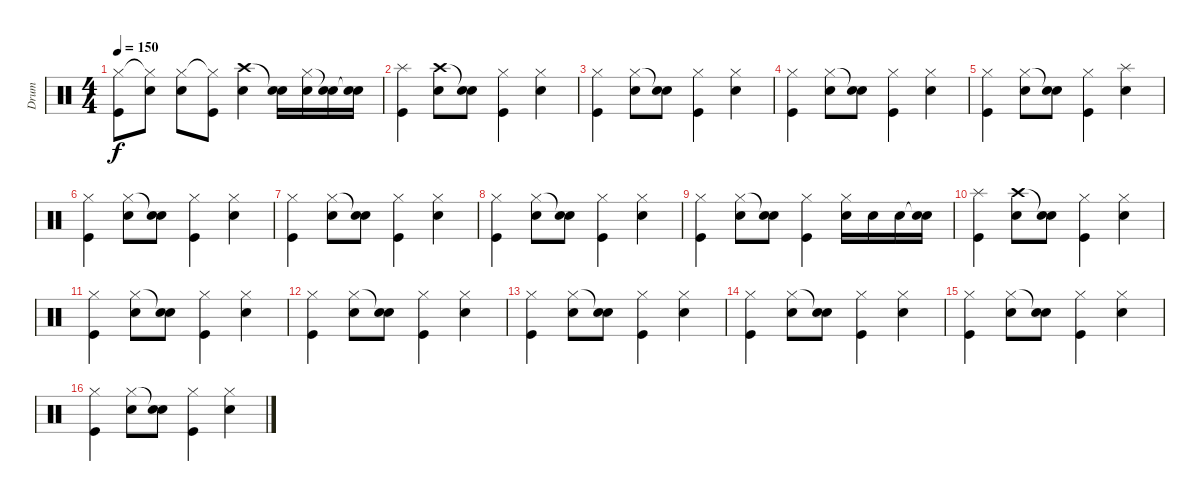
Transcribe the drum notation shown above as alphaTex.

\track ("Drum" "Drum") {instrument percussion}
\staff {score}
\articulation defaults
\ts (4 4)
\tempo 150
\clef neutral
\ks c
("Hi-Hat (closed)" "Kick (hit)").8{dy f} ("Hi-Hat (closed)"{t} "Snare (hit) 2").8 ("Hi-Hat (closed)" "Snare (hit) 2").8 ("Hi-Hat (closed)"{t} "Kick (hit)").8 ("Crash high (hit)" "Snare (hit) 2").4 ("Snare (hit)"{t} "Snare (hit) 2").16 ("Hi-Hat (closed)" "Snare (hit) 2").16 ("Snare (hit)"{t} "Snare (hit) 2").16 ("Snare (hit)"{t} "Snare (hit) 2").16 |
("Splash (hit)" "Kick (hit)").4 ("Crash high (hit)" "Snare (hit) 2").8 ("Snare (hit)"{t} "Snare (hit) 2").8 ("Hi-Hat (closed)" "Kick (hit)").4 ("Hi-Hat (closed)" "Snare (hit) 2").4 |
("Hi-Hat (closed)" "Kick (hit)").4 ("Hi-Hat (closed)" "Snare (hit) 2").8 ("Snare (hit)"{t} "Snare (hit) 2").8 ("Hi-Hat (closed)" "Kick (hit)").4 ("Hi-Hat (closed)" "Snare (hit) 2").4 |
("Hi-Hat (closed)" "Kick (hit)").4 ("Hi-Hat (closed)" "Snare (hit) 2").8 ("Snare (hit)"{t} "Snare (hit) 2").8 ("Hi-Hat (closed)" "Kick (hit)").4 ("Hi-Hat (closed)" "Snare (hit) 2").4 |
("Hi-Hat (closed)" "Kick (hit)").4 ("Hi-Hat (closed)" "Snare (hit) 2").8 ("Snare (hit)"{t} "Snare (hit) 2").8 ("Hi-Hat (closed)" "Kick (hit)").4 ("Splash (hit)" "Snare (hit) 2").4 |
("Hi-Hat (closed)" "Kick (hit)").4 ("Hi-Hat (closed)" "Snare (hit) 2").8 ("Snare (hit)"{t} "Snare (hit) 2").8 ("Hi-Hat (closed)" "Kick (hit)").4 ("Hi-Hat (closed)" "Snare (hit) 2").4 |
("Hi-Hat (closed)" "Kick (hit)").4 ("Hi-Hat (closed)" "Snare (hit) 2").8 ("Snare (hit)"{t} "Snare (hit) 2").8 ("Hi-Hat (closed)" "Kick (hit)").4 ("Hi-Hat (closed)" "Snare (hit) 2").4 |
("Hi-Hat (closed)" "Kick (hit)").4 ("Hi-Hat (closed)" "Snare (hit) 2").8 ("Snare (hit)"{t} "Snare (hit) 2").8 ("Hi-Hat (closed)" "Kick (hit)").4 ("Hi-Hat (closed)" "Snare (hit) 2").4 |
("Hi-Hat (closed)" "Kick (hit)").4 ("Hi-Hat (closed)" "Snare (hit) 2").8 ("Snare (hit)"{t} "Snare (hit) 2").8 ("Hi-Hat (closed)" "Kick (hit)").4 ("Hi-Hat (closed)" "Snare (hit) 2").16 "Snare (hit) 2".16 "Snare (hit) 2".16 ("Snare (hit)"{t} "Snare (hit) 2").16 |
("Splash (hit)" "Kick (hit)").4 ("Crash high (hit)" "Snare (hit) 2").8 ("Snare (hit)"{t} "Snare (hit) 2").8 ("Hi-Hat (closed)" "Kick (hit)").4 ("Hi-Hat (closed)" "Snare (hit) 2").4 |
("Hi-Hat (closed)" "Kick (hit)").4 ("Hi-Hat (closed)" "Snare (hit) 2").8 ("Snare (hit)"{t} "Snare (hit) 2").8 ("Hi-Hat (closed)" "Kick (hit)").4 ("Hi-Hat (closed)" "Snare (hit) 2").4 |
("Hi-Hat (closed)" "Kick (hit)").4 ("Hi-Hat (closed)" "Snare (hit) 2").8 ("Snare (hit)"{t} "Snare (hit) 2").8 ("Hi-Hat (closed)" "Kick (hit)").4 ("Hi-Hat (closed)" "Snare (hit) 2").4 |
("Hi-Hat (closed)" "Kick (hit)").4 ("Hi-Hat (closed)" "Snare (hit) 2").8 ("Snare (hit)"{t} "Snare (hit) 2").8 ("Hi-Hat (closed)" "Kick (hit)").4 ("Hi-Hat (closed)" "Snare (hit) 2").4 |
("Hi-Hat (closed)" "Kick (hit)").4 ("Hi-Hat (closed)" "Snare (hit) 2").8 ("Snare (hit)"{t} "Snare (hit) 2").8 ("Hi-Hat (closed)" "Kick (hit)").4 ("Hi-Hat (closed)" "Snare (hit) 2").4 |
("Hi-Hat (closed)" "Kick (hit)").4 ("Hi-Hat (closed)" "Snare (hit) 2").8 ("Snare (hit)"{t} "Snare (hit) 2").8 ("Hi-Hat (closed)" "Kick (hit)").4 ("Hi-Hat (closed)" "Snare (hit) 2").4 |
("Hi-Hat (closed)" "Kick (hit)").4 ("Hi-Hat (closed)" "Snare (hit) 2").8 ("Snare (hit)"{t} "Snare (hit) 2").8 ("Hi-Hat (closed)" "Kick (hit)").4 ("Hi-Hat (closed)" "Snare (hit) 2").4
